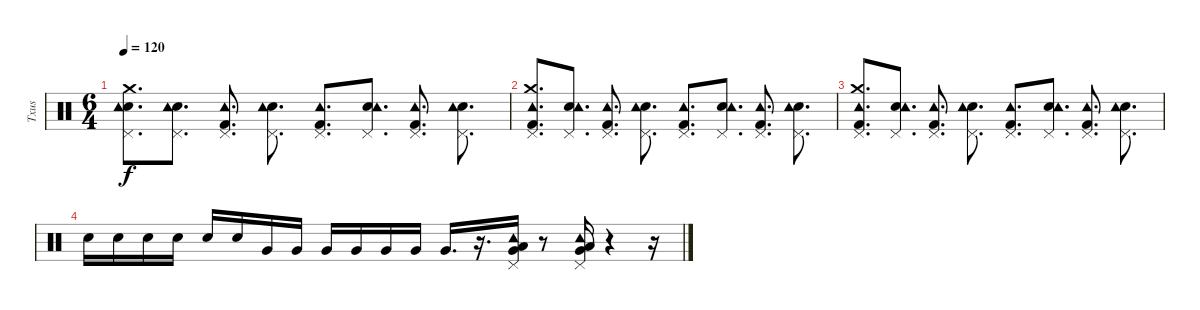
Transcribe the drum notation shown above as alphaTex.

\track ("Txus" "Txus") {instrument percussion}
\staff {score}
\articulation defaults
\ts (6 4)
\tempo 120
\clef neutral
\ks c
("Snare (hit) 2" "Pedal Hi-Hat (hit)" "Crash medium (hit)" "Tambourine (hit)").8{d dy f} ("Snare (hit) 2" "Pedal Hi-Hat (hit)" "Tambourine (hit)").8{d} ("Kick (hit) 2" "Pedal Hi-Hat (hit)" "Tambourine (hit)").8{d} ("Snare (hit) 2" "Pedal Hi-Hat (hit)" "Tambourine (hit)").8{d} ("Kick (hit) 2" "Pedal Hi-Hat (hit)" "Tambourine (hit)").8{d} ("Snare (hit) 2" "Pedal Hi-Hat (hit)" "Tambourine (hit)").8{d} ("Kick (hit) 2" "Pedal Hi-Hat (hit)" "Tambourine (hit)").8{d} ("Snare (hit) 2" "Pedal Hi-Hat (hit)" "Tambourine (hit)").8{d} |
("Kick (hit) 2" "Pedal Hi-Hat (hit)" "Crash medium (hit)" "Tambourine (hit)").8{d} ("Snare (hit) 2" "Pedal Hi-Hat (hit)" "Tambourine (hit)").8{d} ("Kick (hit) 2" "Pedal Hi-Hat (hit)" "Tambourine (hit)").8{d} ("Snare (hit) 2" "Pedal Hi-Hat (hit)" "Tambourine (hit)").8{d} ("Kick (hit) 2" "Pedal Hi-Hat (hit)" "Tambourine (hit)").8{d} ("Snare (hit) 2" "Pedal Hi-Hat (hit)" "Tambourine (hit)").8{d} ("Kick (hit) 2" "Pedal Hi-Hat (hit)" "Tambourine (hit)").8{d} ("Snare (hit) 2" "Pedal Hi-Hat (hit)" "Tambourine (hit)").8{d} |
("Kick (hit) 2" "Pedal Hi-Hat (hit)" "Crash medium (hit)" "Tambourine (hit)").8{d} ("Snare (hit) 2" "Pedal Hi-Hat (hit)" "Tambourine (hit)").8{d} ("Kick (hit) 2" "Pedal Hi-Hat (hit)" "Tambourine (hit)").8{d} ("Snare (hit) 2" "Pedal Hi-Hat (hit)" "Tambourine (hit)").8{d} ("Kick (hit) 2" "Pedal Hi-Hat (hit)" "Tambourine (hit)").8{d} ("Snare (hit) 2" "Pedal Hi-Hat (hit)" "Tambourine (hit)").8{d} ("Kick (hit) 2" "Pedal Hi-Hat (hit)" "Tambourine (hit)").8{d} ("Snare (hit) 2" "Pedal Hi-Hat (hit)" "Tambourine (hit)").8{d} |
"Snare (hit) 2".16 "Snare (hit) 2".16 "Snare (hit) 2".16 "Snare (hit) 2".16 "Snare (hit) 2".16 "Snare (hit) 2".16 "Very Low Tom (hit)".16 "Very Low Tom (hit)".16 "Very Low Tom (hit)".16 "Very Low Tom (hit)".16 "Very Low Tom (hit)".16 "Very Low Tom (hit)".16 "Very Low Tom (hit)".16{d} r.16{d} ("Very Low Tom (hit)" "Low Floor Tom (hit)" "Pedal Hi-Hat (hit)" "Tambourine (hit)").16 r.8 ("Very Low Tom (hit)" "Low Floor Tom (hit)" "Pedal Hi-Hat (hit)" "Tambourine (hit)").16 r.4 r.16
